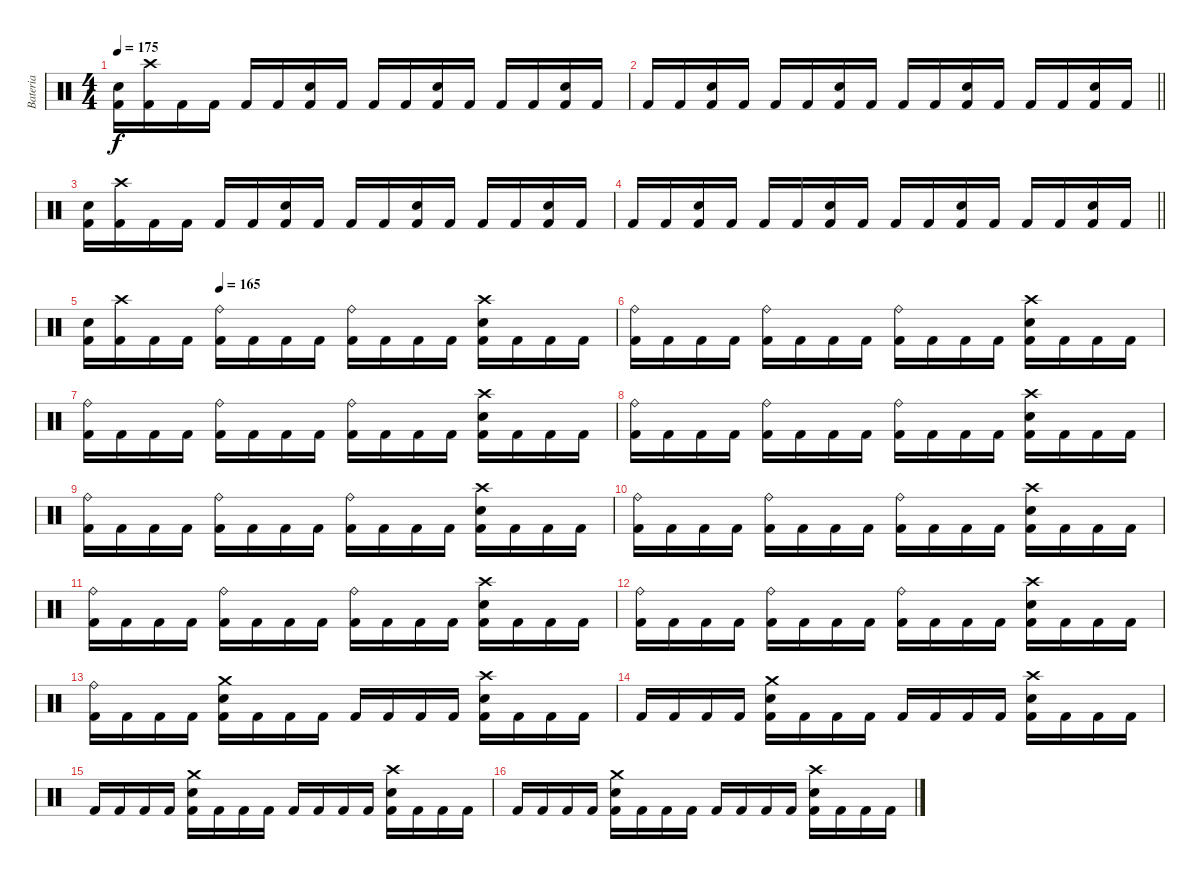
\track ("Bateria" "Bateria") {instrument percussion}
\staff {score}
\articulation defaults
\ts (4 4)
\tempo 175
\clef neutral
\ks c
("Snare (hit) 2" "Kick (hit) 2").16{dy f} ("Crash high (hit)" "Kick (hit) 2").16 "Kick (hit) 2".16 "Kick (hit) 2".16 "Kick (hit) 2".16 "Kick (hit) 2".16 ("Snare (hit) 2" "Kick (hit) 2").16 "Kick (hit) 2".16 "Kick (hit) 2".16 "Kick (hit) 2".16 ("Snare (hit) 2" "Kick (hit) 2").16 "Kick (hit) 2".16 "Kick (hit) 2".16 "Kick (hit) 2".16 ("Snare (hit) 2" "Kick (hit) 2").16 "Kick (hit) 2".16 |
\barLineRight lightlight "Kick (hit) 2".16 "Kick (hit) 2".16
("Snare (hit) 2" "Kick (hit) 2").16 "Kick (hit) 2".16 "Kick (hit) 2".16 "Kick (hit) 2".16 ("Snare (hit) 2" "Kick (hit) 2").16 "Kick (hit) 2".16 "Kick (hit) 2".16 "Kick (hit) 2".16 ("Snare (hit) 2" "Kick (hit) 2").16 "Kick (hit) 2".16 "Kick (hit) 2".16 "Kick (hit) 2".16 ("Snare (hit) 2" "Kick (hit) 2").16 "Kick (hit) 2".16 |
("Snare (hit) 2" "Kick (hit) 2").16 ("Crash high (hit)" "Kick (hit) 2").16 "Kick (hit) 2".16 "Kick (hit) 2".16 "Kick (hit) 2".16 "Kick (hit) 2".16 ("Snare (hit) 2" "Kick (hit) 2").16 "Kick (hit) 2".16 "Kick (hit) 2".16 "Kick (hit) 2".16 ("Snare (hit) 2" "Kick (hit) 2").16 "Kick (hit) 2".16 "Kick (hit) 2".16 "Kick (hit) 2".16 ("Snare (hit) 2" "Kick (hit) 2").16 "Kick (hit) 2".16 |
\barLineRight lightlight "Kick (hit) 2".16 "Kick (hit) 2".16
("Snare (hit) 2" "Kick (hit) 2").16 "Kick (hit) 2".16 "Kick (hit) 2".16 "Kick (hit) 2".16 ("Snare (hit) 2" "Kick (hit) 2").16 "Kick (hit) 2".16 "Kick (hit) 2".16 "Kick (hit) 2".16 ("Snare (hit) 2" "Kick (hit) 2").16 "Kick (hit) 2".16 "Kick (hit) 2".16 "Kick (hit) 2".16 ("Snare (hit) 2" "Kick (hit) 2").16 "Kick (hit) 2".16 |
\tempo (165 0.25)
("Snare (hit) 2" "Kick (hit) 2").16 ("Crash high (hit)" "Kick (hit) 2").16 "Kick (hit) 2".16 "Kick (hit) 2".16 ("Ride (bell)" "Kick (hit) 2").16 "Kick (hit) 2".16 "Kick (hit) 2".16 "Kick (hit) 2".16 ("Ride (bell)" "Kick (hit) 2").16 "Kick (hit) 2".16 "Kick (hit) 2".16 "Kick (hit) 2".16 ("Snare (hit) 2" "Crash high (hit)" "Kick (hit) 2").16 "Kick (hit) 2".16 "Kick (hit) 2".16 "Kick (hit) 2".16 |
("Ride (bell)" "Kick (hit) 2").16 "Kick (hit) 2".16 "Kick (hit) 2".16 "Kick (hit) 2".16 ("Ride (bell)" "Kick (hit) 2").16 "Kick (hit) 2".16 "Kick (hit) 2".16 "Kick (hit) 2".16 ("Ride (bell)" "Kick (hit) 2").16 "Kick (hit) 2".16 "Kick (hit) 2".16 "Kick (hit) 2".16 ("Snare (hit) 2" "Crash high (hit)" "Kick (hit) 2").16 "Kick (hit) 2".16 "Kick (hit) 2".16 "Kick (hit) 2".16 |
("Ride (bell)" "Kick (hit) 2").16 "Kick (hit) 2".16 "Kick (hit) 2".16 "Kick (hit) 2".16 ("Ride (bell)" "Kick (hit) 2").16 "Kick (hit) 2".16 "Kick (hit) 2".16 "Kick (hit) 2".16 ("Ride (bell)" "Kick (hit) 2").16 "Kick (hit) 2".16 "Kick (hit) 2".16 "Kick (hit) 2".16 ("Snare (hit) 2" "Crash high (hit)" "Kick (hit) 2").16 "Kick (hit) 2".16 "Kick (hit) 2".16 "Kick (hit) 2".16 |
("Ride (bell)" "Kick (hit) 2").16 "Kick (hit) 2".16 "Kick (hit) 2".16 "Kick (hit) 2".16 ("Ride (bell)" "Kick (hit) 2").16 "Kick (hit) 2".16 "Kick (hit) 2".16 "Kick (hit) 2".16 ("Ride (bell)" "Kick (hit) 2").16 "Kick (hit) 2".16 "Kick (hit) 2".16 "Kick (hit) 2".16 ("Snare (hit) 2" "Crash high (hit)" "Kick (hit) 2").16 "Kick (hit) 2".16 "Kick (hit) 2".16 "Kick (hit) 2".16 |
("Ride (bell)" "Kick (hit) 2").16 "Kick (hit) 2".16 "Kick (hit) 2".16 "Kick (hit) 2".16 ("Ride (bell)" "Kick (hit) 2").16 "Kick (hit) 2".16 "Kick (hit) 2".16 "Kick (hit) 2".16 ("Ride (bell)" "Kick (hit) 2").16 "Kick (hit) 2".16 "Kick (hit) 2".16 "Kick (hit) 2".16 ("Snare (hit) 2" "Crash high (hit)" "Kick (hit) 2").16 "Kick (hit) 2".16 "Kick (hit) 2".16 "Kick (hit) 2".16 |
("Ride (bell)" "Kick (hit) 2").16 "Kick (hit) 2".16 "Kick (hit) 2".16 "Kick (hit) 2".16 ("Ride (bell)" "Kick (hit) 2").16 "Kick (hit) 2".16 "Kick (hit) 2".16 "Kick (hit) 2".16 ("Ride (bell)" "Kick (hit) 2").16 "Kick (hit) 2".16 "Kick (hit) 2".16 "Kick (hit) 2".16 ("Snare (hit) 2" "Crash high (hit)" "Kick (hit) 2").16 "Kick (hit) 2".16 "Kick (hit) 2".16 "Kick (hit) 2".16 |
("Ride (bell)" "Kick (hit) 2").16 "Kick (hit) 2".16 "Kick (hit) 2".16 "Kick (hit) 2".16 ("Ride (bell)" "Kick (hit) 2").16 "Kick (hit) 2".16 "Kick (hit) 2".16 "Kick (hit) 2".16 ("Ride (bell)" "Kick (hit) 2").16 "Kick (hit) 2".16 "Kick (hit) 2".16 "Kick (hit) 2".16 ("Snare (hit) 2" "Crash high (hit)" "Kick (hit) 2").16 "Kick (hit) 2".16 "Kick (hit) 2".16 "Kick (hit) 2".16 |
("Ride (bell)" "Kick (hit) 2").16 "Kick (hit) 2".16 "Kick (hit) 2".16 "Kick (hit) 2".16 ("Ride (bell)" "Kick (hit) 2").16 "Kick (hit) 2".16 "Kick (hit) 2".16 "Kick (hit) 2".16 ("Ride (bell)" "Kick (hit) 2").16 "Kick (hit) 2".16 "Kick (hit) 2".16 "Kick (hit) 2".16 ("Snare (hit) 2" "Crash high (hit)" "Kick (hit) 2").16 "Kick (hit) 2".16 "Kick (hit) 2".16 "Kick (hit) 2".16 |
("Ride (bell)" "Kick (hit) 2").16 "Kick (hit) 2".16 "Kick (hit) 2".16 "Kick (hit) 2".16 ("Crash medium (hit)" "Snare (hit) 2" "Kick (hit) 2").16 "Kick (hit) 2".16 "Kick (hit) 2".16 "Kick (hit) 2".16 "Kick (hit) 2".16 "Kick (hit) 2".16 "Kick (hit) 2".16 "Kick (hit) 2".16 ("Crash high (hit)" "Snare (hit) 2" "Kick (hit) 2").16 "Kick (hit) 2".16 "Kick (hit) 2".16 "Kick (hit) 2".16 |
"Kick (hit) 2".16 "Kick (hit) 2".16 "Kick (hit) 2".16 "Kick (hit) 2".16 ("Crash medium (hit)" "Snare (hit) 2" "Kick (hit) 2").16 "Kick (hit) 2".16 "Kick (hit) 2".16 "Kick (hit) 2".16 "Kick (hit) 2".16 "Kick (hit) 2".16 "Kick (hit) 2".16 "Kick (hit) 2".16 ("Crash high (hit)" "Snare (hit) 2" "Kick (hit) 2").16 "Kick (hit) 2".16 "Kick (hit) 2".16 "Kick (hit) 2".16 |
"Kick (hit) 2".16 "Kick (hit) 2".16 "Kick (hit) 2".16 "Kick (hit) 2".16 ("Crash medium (hit)" "Snare (hit) 2" "Kick (hit) 2").16 "Kick (hit) 2".16 "Kick (hit) 2".16 "Kick (hit) 2".16 "Kick (hit) 2".16 "Kick (hit) 2".16 "Kick (hit) 2".16 "Kick (hit) 2".16 ("Crash high (hit)" "Snare (hit) 2" "Kick (hit) 2").16 "Kick (hit) 2".16 "Kick (hit) 2".16 "Kick (hit) 2".16 |
"Kick (hit) 2".16 "Kick (hit) 2".16 "Kick (hit) 2".16 "Kick (hit) 2".16 ("Crash medium (hit)" "Snare (hit) 2" "Kick (hit) 2").16 "Kick (hit) 2".16 "Kick (hit) 2".16 "Kick (hit) 2".16 "Kick (hit) 2".16 "Kick (hit) 2".16 "Kick (hit) 2".16 "Kick (hit) 2".16 ("Crash high (hit)" "Snare (hit) 2" "Kick (hit) 2").16 "Kick (hit) 2".16 "Kick (hit) 2".16 "Kick (hit) 2".16
